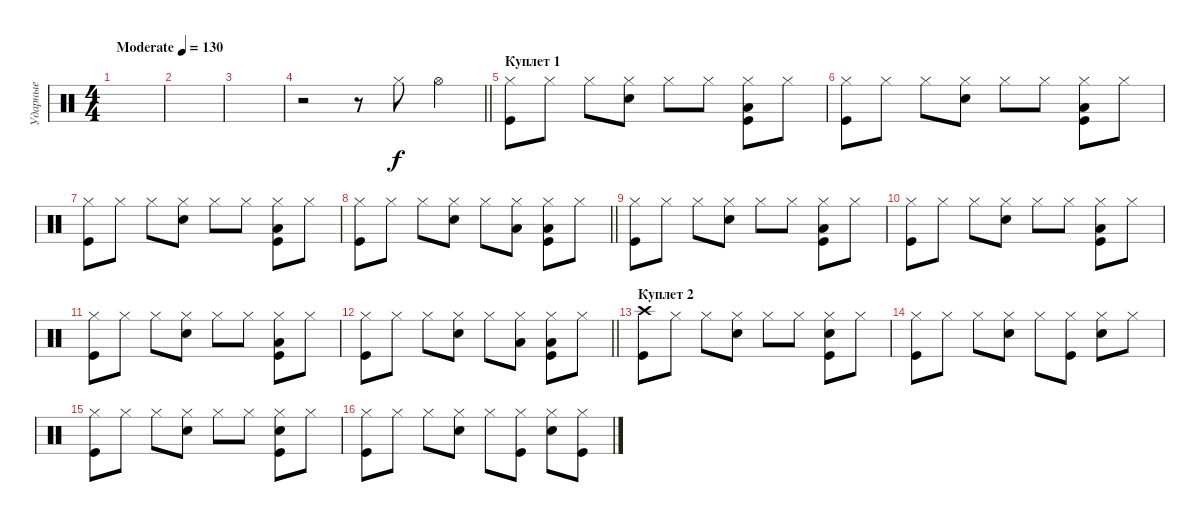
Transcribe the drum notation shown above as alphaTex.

\track ("Ударные" "Ударные") {instrument percussion}
\staff {score}
\articulation defaults
\ts (4 4)
\tempo (130 "Moderate")
\clef neutral
\ks c
|
|
|
\barLineRight lightlight
r.2 r.8 "Hi-Hat (closed)".8 "Hi-Hat (open)".4 |
\section ("" "Куплет 1")
("Hi-Hat (closed)" "Kick (hit)").8 "Hi-Hat (closed)".8 "Hi-Hat (closed)".8 ("Hi-Hat (closed)" "Snare (hit) 2").8 "Hi-Hat (closed)".8 "Hi-Hat (closed)".8 ("Hi-Hat (closed)" "Low Tom (hit)" "Kick (hit)").8 "Hi-Hat (closed)".8 |
("Hi-Hat (closed)" "Kick (hit)").8 "Hi-Hat (closed)".8 "Hi-Hat (closed)".8 ("Hi-Hat (closed)" "Snare (hit) 2").8 "Hi-Hat (closed)".8 "Hi-Hat (closed)".8 ("Hi-Hat (closed)" "Low Tom (hit)" "Kick (hit)").8 "Hi-Hat (closed)".8 |
("Hi-Hat (closed)" "Kick (hit)").8 "Hi-Hat (closed)".8 "Hi-Hat (closed)".8 ("Hi-Hat (closed)" "Snare (hit) 2").8 "Hi-Hat (closed)".8 "Hi-Hat (closed)".8 ("Hi-Hat (closed)" "Low Tom (hit)" "Kick (hit)").8 "Hi-Hat (closed)".8 |
\barLineRight lightlight
("Hi-Hat (closed)" "Kick (hit)").8 "Hi-Hat (closed)".8 "Hi-Hat (closed)".8 ("Hi-Hat (closed)" "Snare (hit) 2").8 "Hi-Hat (closed)".8 ("Hi-Hat (closed)" "Low Tom (hit)").8 ("Hi-Hat (closed)" "Low Tom (hit)" "Kick (hit)").8 "Hi-Hat (closed)".8 |
("Hi-Hat (closed)" "Kick (hit)").8 "Hi-Hat (closed)".8 "Hi-Hat (closed)".8 ("Hi-Hat (closed)" "Snare (hit) 2").8 "Hi-Hat (closed)".8 "Hi-Hat (closed)".8 ("Hi-Hat (closed)" "Low Tom (hit)" "Kick (hit)").8 "Hi-Hat (closed)".8 |
("Hi-Hat (closed)" "Kick (hit)").8 "Hi-Hat (closed)".8 "Hi-Hat (closed)".8 ("Hi-Hat (closed)" "Snare (hit) 2").8 "Hi-Hat (closed)".8 "Hi-Hat (closed)".8 ("Hi-Hat (closed)" "Low Tom (hit)" "Kick (hit)").8 "Hi-Hat (closed)".8 |
("Hi-Hat (closed)" "Kick (hit)").8 "Hi-Hat (closed)".8 "Hi-Hat (closed)".8 ("Hi-Hat (closed)" "Snare (hit) 2").8 "Hi-Hat (closed)".8 "Hi-Hat (closed)".8 ("Hi-Hat (closed)" "Low Tom (hit)" "Kick (hit)").8 "Hi-Hat (closed)".8 |
\barLineRight lightlight
("Hi-Hat (closed)" "Kick (hit)").8 "Hi-Hat (closed)".8 "Hi-Hat (closed)".8 ("Hi-Hat (closed)" "Snare (hit) 2").8 "Hi-Hat (closed)".8 ("Hi-Hat (closed)" "Low Tom (hit)").8 ("Hi-Hat (closed)" "Low Tom (hit)" "Kick (hit)").8 "Hi-Hat (closed)".8 |
\section ("" "Куплет 2")
("Crash high (hit)" "Kick (hit)").8 "Hi-Hat (closed)".8 "Hi-Hat (closed)".8 ("Hi-Hat (closed)" "Snare (hit) 2").8 "Hi-Hat (closed)".8 "Hi-Hat (closed)".8 ("Hi-Hat (closed)" "Snare (hit) 2" "Kick (hit)").8 "Hi-Hat (closed)".8 |
("Hi-Hat (closed)" "Kick (hit)").8 "Hi-Hat (closed)".8 "Hi-Hat (closed)".8 ("Hi-Hat (closed)" "Snare (hit) 2").8 "Hi-Hat (closed)".8 ("Hi-Hat (closed)" "Kick (hit)").8 ("Hi-Hat (closed)" "Snare (hit) 2").8 "Hi-Hat (closed)".8 |
("Hi-Hat (closed)" "Kick (hit)").8 "Hi-Hat (closed)".8 "Hi-Hat (closed)".8 ("Hi-Hat (closed)" "Snare (hit) 2").8 "Hi-Hat (closed)".8 "Hi-Hat (closed)".8 ("Hi-Hat (closed)" "Snare (hit) 2" "Kick (hit)").8 "Hi-Hat (closed)".8 |
("Hi-Hat (closed)" "Kick (hit)").8 "Hi-Hat (closed)".8 "Hi-Hat (closed)".8 ("Hi-Hat (closed)" "Snare (hit) 2").8 "Hi-Hat (closed)".8 ("Hi-Hat (closed)" "Kick (hit)").8 ("Hi-Hat (closed)" "Snare (hit) 2").8 ("Hi-Hat (closed)" "Kick (hit)").8
